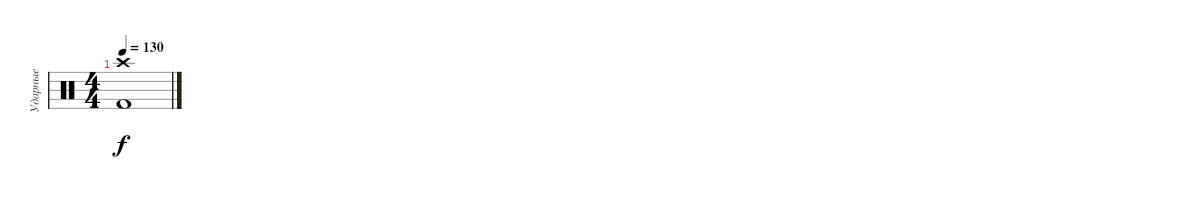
\track ("Ударные" "Ударные") {instrument percussion}
\staff {score}
\articulation defaults
\ts (4 4)
\tempo 130
\clef neutral
\ks c
("Kick (hit) 2" "Crash high (hit)").1{dy f}
